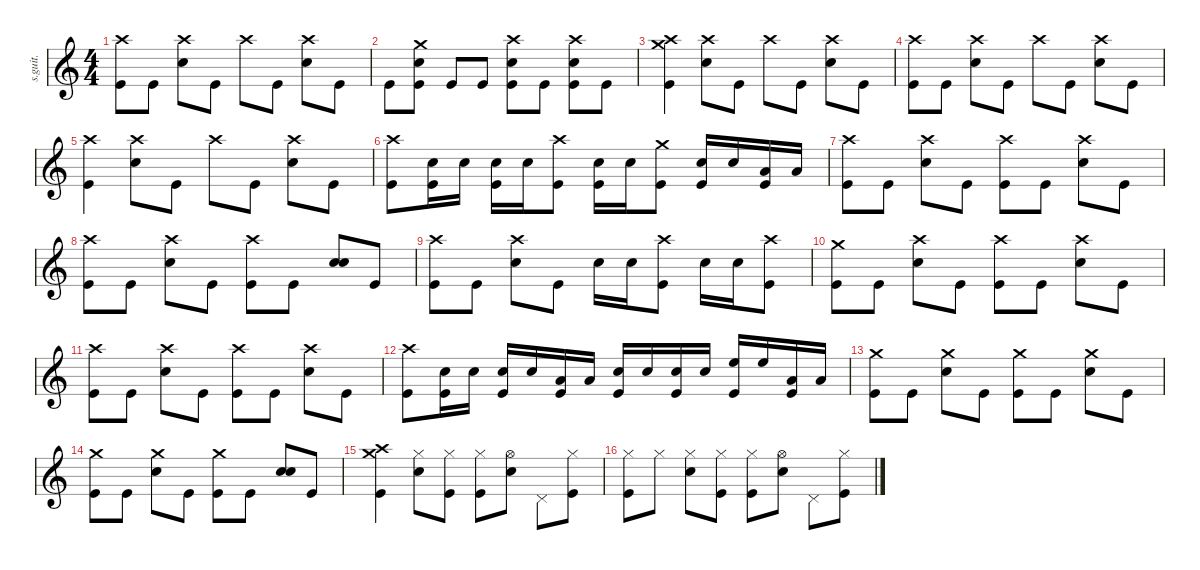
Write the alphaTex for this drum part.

\defaultSystemsLayout 4
\hideDynamics
\bracketExtendMode nobrackets
\track ("Dave Grohl" "s.guit.") {instrument percussion}
\staff {score}
\articulation defaults
\ts (4 4)
\tempo (136 hide)
\clef g2
\ks c
("Crash high (hit)" "Kick (hit)").8{dy f} "Kick (hit)".8 ("Crash high (hit)" "Snare (hit) 2").8 "Kick (hit)".8 "Crash high (hit)".8 "Kick (hit)".8 ("Crash high (hit)" "Snare (hit) 2").8 "Kick (hit)".8 |
"Kick (hit)".8 ("Crash medium (hit)" "Snare (hit) 2" "Kick (hit)").8 "Kick (hit)".8 "Kick (hit)".8 ("Crash high (hit)" "Snare (hit) 2" "Kick (hit)").8 "Kick (hit)".8 ("Crash high (hit)" "Snare (hit) 2" "Kick (hit)").8 "Kick (hit)".8 |
("Crash high (hit)" "Crash medium (hit)" "Kick (hit)").4 ("Crash high (hit)" "Snare (hit) 2").8 "Kick (hit)".8 "Crash high (hit)".8 "Kick (hit)".8 ("Crash high (hit)" "Snare (hit) 2").8 "Kick (hit)".8 |
("Crash high (hit)" "Kick (hit)").8 "Kick (hit)".8 ("Crash high (hit)" "Snare (hit) 2").8 "Kick (hit)".8 "Crash high (hit)".8 "Kick (hit)".8 ("Crash high (hit)" "Snare (hit) 2").8 "Kick (hit)".8 |
("Crash high (hit)" "Kick (hit)").4 ("Crash high (hit)" "Snare (hit) 2").8 "Kick (hit)".8 "Crash high (hit)".8 "Kick (hit)".8 ("Crash high (hit)" "Snare (hit) 2").8 "Kick (hit)".8 |
("Crash high (hit)" "Kick (hit)").8 ("Snare (hit) 2" "Kick (hit)").16 "Snare (hit) 2".16 ("Snare (hit) 2" "Kick (hit)").16 "Snare (hit) 2".16 ("Crash high (hit)" "Kick (hit)").8 ("Snare (hit) 2" "Kick (hit)").16 "Snare (hit) 2".16 ("Crash medium (hit)" "Kick (hit)").8 ("Snare (hit) 2" "Kick (hit)").16 "Snare (hit) 2".16 ("Low Floor Tom (hit)" "Kick (hit)").16 "Low Floor Tom (hit)".16{dy ff} |
("Crash high (hit)" "Kick (hit)").8{dy f} "Kick (hit)".8 ("Crash high (hit)" "Snare (hit) 2").8 "Kick (hit)".8 ("Crash high (hit)" "Kick (hit)").8 "Kick (hit)".8 ("Crash high (hit)" "Snare (hit) 2").8 "Kick (hit)".8 |
("Crash high (hit)" "Kick (hit)").8 "Kick (hit)".8 ("Crash high (hit)" "Snare (hit) 2").8 "Kick (hit)".8 ("Crash high (hit)" "Kick (hit)").8 "Kick (hit)".8 ("Snare (hit) 2" "Snare (hit) 2").8{bd 30} "Kick (hit)".8 |
("Crash high (hit)" "Kick (hit)").8 "Kick (hit)".8 ("Crash high (hit)" "Snare (hit) 2").8 "Kick (hit)".8 "Snare (hit) 2".16 "Snare (hit) 2".16 ("Crash high (hit)" "Kick (hit)").8 "Snare (hit) 2".16 "Snare (hit) 2".16 ("Crash high (hit)" "Kick (hit)").8 |
("Crash medium (hit)" "Kick (hit)").8 "Kick (hit)".8 ("Crash high (hit)" "Snare (hit) 2").8 "Kick (hit)".8 ("Crash high (hit)" "Kick (hit)").8 "Kick (hit)".8 ("Crash high (hit)" "Snare (hit) 2").8 "Kick (hit)".8 |
("Crash high (hit)" "Kick (hit)").8 "Kick (hit)".8 ("Crash high (hit)" "Snare (hit) 2").8 "Kick (hit)".8 ("Crash high (hit)" "Kick (hit)").8 "Kick (hit)".8 ("Crash high (hit)" "Snare (hit) 2").8 "Kick (hit)".8 |
("Crash high (hit)" "Kick (hit)").8 ("Snare (hit) 2" "Kick (hit)").16 "Snare (hit) 2".16 ("Snare (hit) 2" "Kick (hit)").16 "Snare (hit) 2".16 ("Low Floor Tom (hit)" "Kick (hit)").16 "Low Floor Tom (hit)".16{dy ff} ("Snare (hit) 2" "Kick (hit)").16{dy f} "Snare (hit) 2".16 ("Snare (hit) 2" "Kick (hit)").16 "Snare (hit) 2".16 ("High Floor Tom (hit)" "Kick (hit)").16 "High Floor Tom (hit)".16{dy ff} ("Low Floor Tom (hit)" "Kick (hit)").16 "Low Floor Tom (hit)".16 |
("Crash medium (hit)" "Kick (hit)").8{dy f} "Kick (hit)".8 ("Crash medium (hit)" "Snare (hit) 2").8 "Kick (hit)".8 ("Crash medium (hit)" "Kick (hit)").8 "Kick (hit)".8 ("Crash medium (hit)" "Snare (hit) 2").8 "Kick (hit)".8 |
("Crash medium (hit)" "Kick (hit)").8 "Kick (hit)".8 ("Crash medium (hit)" "Snare (hit) 2").8 "Kick (hit)".8 ("Crash medium (hit)" "Kick (hit)").8 "Kick (hit)".8 ("Snare (hit) 2" "Snare (hit) 2").8{bd 30} "Kick (hit)".8 |
("Crash high (hit)" "Crash medium (hit)" "Kick (hit)").4 ("Hi-Hat (closed)" "Snare (hit) 2").8 ("Hi-Hat (closed)" "Kick (hit)").8 ("Hi-Hat (closed)" "Kick (hit)").8 ("Hi-Hat (open)" "Snare (hit) 2").8 "Pedal Hi-Hat (hit)".8 ("Hi-Hat (closed)" "Kick (hit)").8 |
("Hi-Hat (closed)" "Kick (hit)").8 "Hi-Hat (closed)".8{dy ppp} ("Hi-Hat (closed)" "Snare (hit) 2").8{dy f} ("Hi-Hat (closed)" "Kick (hit)").8 ("Hi-Hat (closed)" "Kick (hit)").8 ("Hi-Hat (open)" "Snare (hit) 2").8 "Pedal Hi-Hat (hit)".8 ("Hi-Hat (closed)" "Kick (hit)").8
